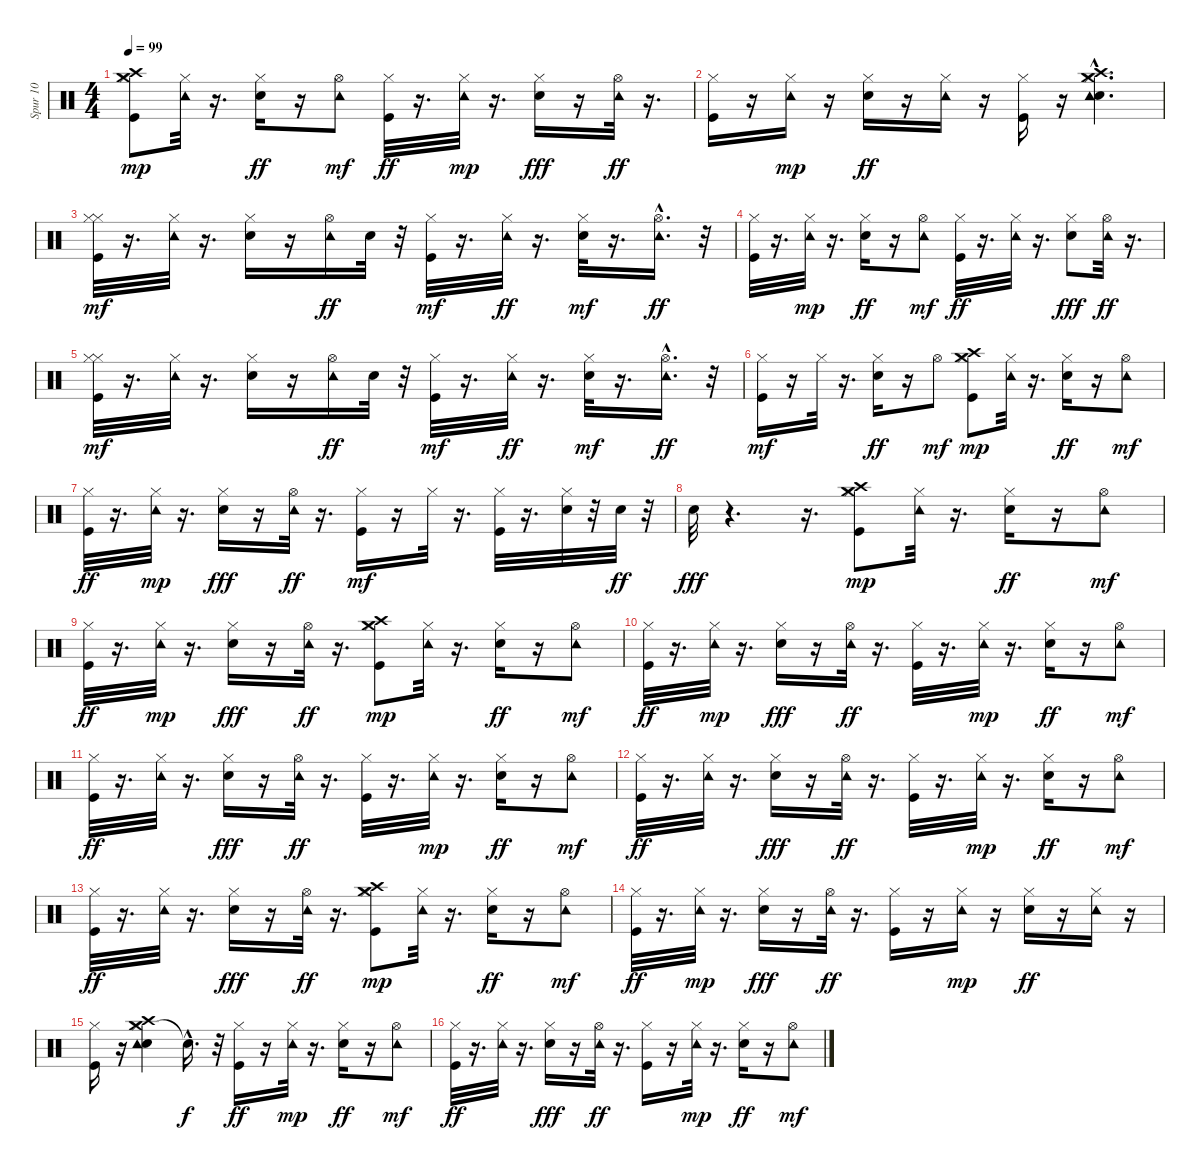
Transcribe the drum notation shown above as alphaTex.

\track ("Spur 10" "Spur 10") {instrument percussion}
\staff {score}
\articulation defaults
\ts (4 4)
\tempo 99
\clef neutral
\ks c
("Hi-Hat (closed)" "Kick (hit)" "Crash high (hit)" "Crash medium (hit)").8{dy mp} ("Hi-Hat (closed)" "Tambourine (hit)").32 r.16{d} ("Hi-Hat (closed)" "Electric Snare (hit)").16{dy ff} r.16 ("Hi-Hat (open)" "Tambourine (hit)").8{dy mf} ("Hi-Hat (closed)" "Kick (hit)").32{dy ff} r.16{d} ("Hi-Hat (closed)" "Tambourine (hit)").32{dy mp} r.16{d} ("Hi-Hat (closed)" "Electric Snare (hit)").16{dy fff} r.16 ("Hi-Hat (open)" "Tambourine (hit)").32{dy ff} r.16{d} |
("Hi-Hat (closed)" "Kick (hit)").16 r.16 ("Hi-Hat (closed)" "Tambourine (hit)").16{dy mp} r.16 ("Hi-Hat (closed)" "Electric Snare (hit)").16{dy ff} r.16 ("Hi-Hat (closed)" "Tambourine (hit)").16 r.16 ("Hi-Hat (closed)" "Kick (hit)").16 r.16 ("Hi-Hat (closed)"{hac} "Electric Snare (hit)" "Crash high (hit)" "Crash medium (hit)" "Tambourine (hit)").4{d} |
("Hi-Hat (closed)" "Hi-Hat (closed)" "Kick (hit)").32{dy mf} r.16{d} ("Hi-Hat (closed)" "Tambourine (hit)").32 r.16{d} ("Electric Snare (hit)" "Hi-Hat (closed)").16 r.16 ("Hi-Hat (open)" "Tambourine (hit)").16{dy ff} "Electric Snare (hit)".32 r.32 ("Hi-Hat (closed)" "Kick (hit)").32{dy mf} r.16{d} ("Hi-Hat (closed)" "Tambourine (hit)").32{dy ff} r.16{d} ("Electric Snare (hit)" "Hi-Hat (closed)").32{dy mf} r.16{d} ("Hi-Hat (open)"{hac} "Tambourine (hit)").16{d dy ff} r.32 |
("Hi-Hat (closed)" "Kick (hit)").32 r.16{d} ("Hi-Hat (closed)" "Tambourine (hit)").32{dy mp} r.16{d} ("Hi-Hat (closed)" "Electric Snare (hit)").16{dy ff} r.16 ("Hi-Hat (open)" "Tambourine (hit)").8{dy mf} ("Hi-Hat (closed)" "Kick (hit)").32{dy ff} r.16{d} ("Hi-Hat (closed)" "Tambourine (hit)").32 r.16{d} ("Hi-Hat (closed)" "Electric Snare (hit)").8{dy fff} ("Hi-Hat (open)" "Tambourine (hit)").32{dy ff} r.16{d} |
("Hi-Hat (closed)" "Hi-Hat (closed)" "Kick (hit)").32{dy mf} r.16{d} ("Hi-Hat (closed)" "Tambourine (hit)").32 r.16{d} ("Electric Snare (hit)" "Hi-Hat (closed)").16 r.16 ("Hi-Hat (open)" "Tambourine (hit)").16{dy ff} "Electric Snare (hit)".32 r.32 ("Hi-Hat (closed)" "Kick (hit)").32{dy mf} r.16{d} ("Hi-Hat (closed)" "Tambourine (hit)").32{dy ff} r.16{d} ("Electric Snare (hit)" "Hi-Hat (closed)").32{dy mf} r.16{d} ("Hi-Hat (open)"{hac} "Tambourine (hit)").16{d dy ff} r.32 |
("Kick (hit)" "Hi-Hat (closed)").16{dy mf} r.16 "Hi-Hat (closed)".32 r.16{d} ("Hi-Hat (closed)" "Electric Snare (hit)").16{dy ff} r.16 "Hi-Hat (open)".8{dy mf} ("Hi-Hat (closed)" "Kick (hit)" "Crash high (hit)" "Crash medium (hit)").8{dy mp} ("Hi-Hat (closed)" "Tambourine (hit)").32 r.16{d} ("Hi-Hat (closed)" "Electric Snare (hit)").16{dy ff} r.16 ("Hi-Hat (open)" "Tambourine (hit)").8{dy mf} |
("Hi-Hat (closed)" "Kick (hit)").32{dy ff} r.16{d} ("Hi-Hat (closed)" "Tambourine (hit)").32{dy mp} r.16{d} ("Hi-Hat (closed)" "Electric Snare (hit)").16{dy fff} r.16 ("Hi-Hat (open)" "Tambourine (hit)").32{dy ff} r.16{d} ("Kick (hit)" "Hi-Hat (closed)").16{dy mf} r.16 "Hi-Hat (closed)".32 r.16{d} ("Kick (hit)" "Hi-Hat (closed)").32 r.16{d} ("Hi-Hat (closed)" "Electric Snare (hit)").32 r.32 "Electric Snare (hit)".32{dy ff} r.32 |
"Electric Snare (hit)".32{dy fff} r.4{d} r.16{d} ("Hi-Hat (closed)" "Kick (hit)" "Crash high (hit)" "Crash medium (hit)").8{dy mp} ("Hi-Hat (closed)" "Tambourine (hit)").32 r.16{d} ("Hi-Hat (closed)" "Electric Snare (hit)").16{dy ff} r.16 ("Hi-Hat (open)" "Tambourine (hit)").8{dy mf} |
("Hi-Hat (closed)" "Kick (hit)").32{dy ff} r.16{d} ("Hi-Hat (closed)" "Tambourine (hit)").32{dy mp} r.16{d} ("Hi-Hat (closed)" "Electric Snare (hit)").16{dy fff} r.16 ("Hi-Hat (open)" "Tambourine (hit)").32{dy ff} r.16{d} ("Hi-Hat (closed)" "Kick (hit)" "Crash high (hit)" "Crash medium (hit)").8{dy mp} ("Hi-Hat (closed)" "Tambourine (hit)").32 r.16{d} ("Hi-Hat (closed)" "Electric Snare (hit)").16{dy ff} r.16 ("Hi-Hat (open)" "Tambourine (hit)").8{dy mf} |
("Hi-Hat (closed)" "Kick (hit)").32{dy ff} r.16{d} ("Hi-Hat (closed)" "Tambourine (hit)").32{dy mp} r.16{d} ("Hi-Hat (closed)" "Electric Snare (hit)").16{dy fff} r.16 ("Hi-Hat (open)" "Tambourine (hit)").32{dy ff} r.16{d} ("Hi-Hat (closed)" "Kick (hit)").32 r.16{d} ("Hi-Hat (closed)" "Tambourine (hit)").32{dy mp} r.16{d} ("Hi-Hat (closed)" "Electric Snare (hit)").16{dy ff} r.16 ("Hi-Hat (open)" "Tambourine (hit)").8{dy mf} |
("Hi-Hat (closed)" "Kick (hit)").32{dy ff} r.16{d} ("Hi-Hat (closed)" "Tambourine (hit)").32 r.16{d} ("Hi-Hat (closed)" "Electric Snare (hit)").16{dy fff} r.16 ("Hi-Hat (open)" "Tambourine (hit)").32{dy ff} r.16{d} ("Hi-Hat (closed)" "Kick (hit)").32 r.16{d} ("Hi-Hat (closed)" "Tambourine (hit)").32{dy mp} r.16{d} ("Hi-Hat (closed)" "Electric Snare (hit)").16{dy ff} r.16 ("Hi-Hat (open)" "Tambourine (hit)").8{dy mf} |
("Hi-Hat (closed)" "Kick (hit)").32{dy ff} r.16{d} ("Hi-Hat (closed)" "Tambourine (hit)").32 r.16{d} ("Hi-Hat (closed)" "Electric Snare (hit)").16{dy fff} r.16 ("Hi-Hat (open)" "Tambourine (hit)").32{dy ff} r.16{d} ("Hi-Hat (closed)" "Kick (hit)").32 r.16{d} ("Hi-Hat (closed)" "Tambourine (hit)").32{dy mp} r.16{d} ("Hi-Hat (closed)" "Electric Snare (hit)").16{dy ff} r.16 ("Hi-Hat (open)" "Tambourine (hit)").8{dy mf} |
("Hi-Hat (closed)" "Kick (hit)").32{dy ff} r.16{d} ("Hi-Hat (closed)" "Tambourine (hit)").32 r.16{d} ("Hi-Hat (closed)" "Electric Snare (hit)").16{dy fff} r.16 ("Hi-Hat (open)" "Tambourine (hit)").32{dy ff} r.16{d} ("Hi-Hat (closed)" "Kick (hit)" "Crash high (hit)" "Crash medium (hit)").8{dy mp} ("Hi-Hat (closed)" "Tambourine (hit)").32 r.16{d} ("Hi-Hat (closed)" "Electric Snare (hit)").16{dy ff} r.16 ("Hi-Hat (open)" "Tambourine (hit)").8{dy mf} |
("Hi-Hat (closed)" "Kick (hit)").32{dy ff} r.16{d} ("Hi-Hat (closed)" "Tambourine (hit)").32{dy mp} r.16{d} ("Hi-Hat (closed)" "Electric Snare (hit)").16{dy fff} r.16 ("Hi-Hat (open)" "Tambourine (hit)").32{dy ff} r.16{d} ("Hi-Hat (closed)" "Kick (hit)").16 r.16 ("Hi-Hat (closed)" "Tambourine (hit)").16{dy mp} r.16 ("Hi-Hat (closed)" "Electric Snare (hit)").16{dy ff} r.16 ("Hi-Hat (closed)" "Tambourine (hit)").16 r.16 |
("Hi-Hat (closed)" "Kick (hit)").16 r.16 ("Hi-Hat (closed)" "Electric Snare (hit)" "Crash high (hit)" "Crash medium (hit)" "Tambourine (hit)").4 "Snare (hit)"{hac t}.16{d dy f} r.32 ("Hi-Hat (closed)" "Kick (hit)").16{dy ff} r.16 ("Hi-Hat (closed)" "Tambourine (hit)").32{dy mp} r.16{d} ("Hi-Hat (closed)" "Electric Snare (hit)").16{dy ff} r.16 ("Hi-Hat (open)" "Tambourine (hit)").8{dy mf} |
("Hi-Hat (closed)" "Kick (hit)").32{dy ff} r.16{d} ("Hi-Hat (closed)" "Tambourine (hit)").32 r.16{d} ("Hi-Hat (closed)" "Electric Snare (hit)").16{dy fff} r.16 ("Hi-Hat (open)" "Tambourine (hit)").32{dy ff} r.16{d} ("Hi-Hat (closed)" "Kick (hit)").16 r.16 ("Hi-Hat (closed)" "Tambourine (hit)").32{dy mp} r.16{d} ("Hi-Hat (closed)" "Electric Snare (hit)").16{dy ff} r.16 ("Hi-Hat (open)" "Tambourine (hit)").8{dy mf}
